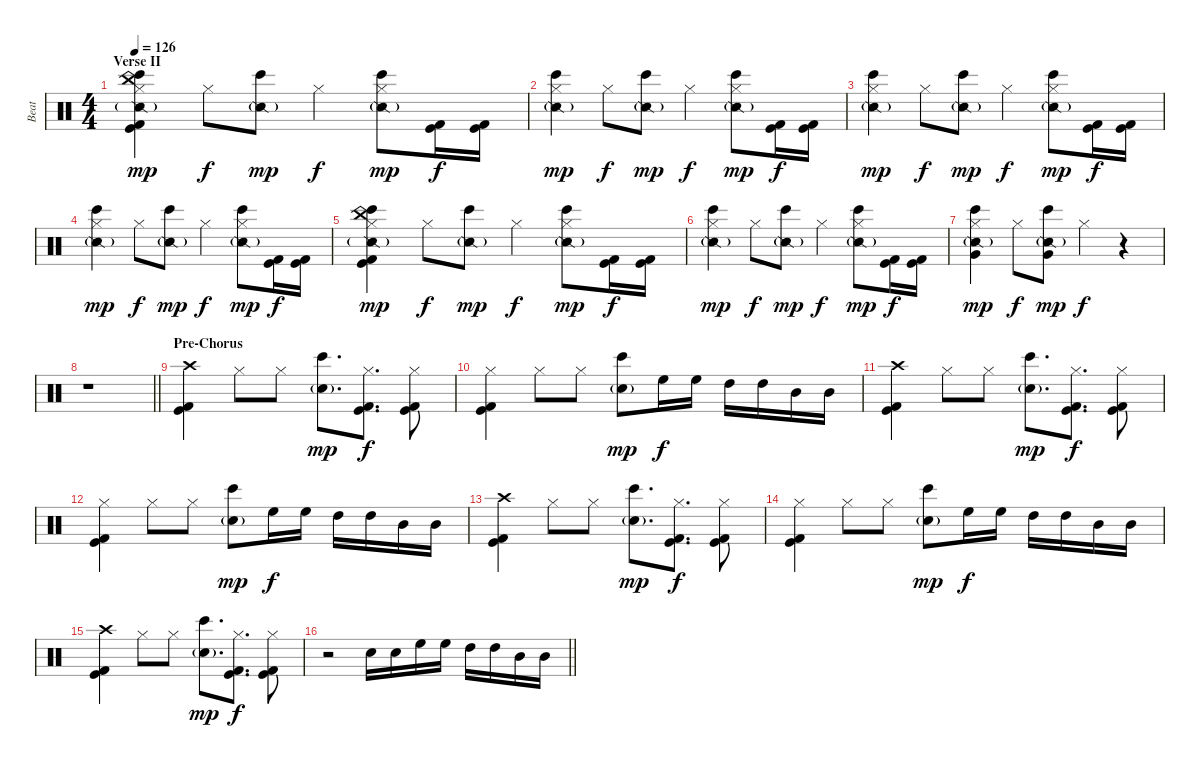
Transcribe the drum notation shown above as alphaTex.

\track ("Beat" "Beat") {instrument percussion}
\staff {score}
\articulation defaults
\ts (4 4)
\section ("" "Verse II")
\tempo 126
\clef neutral
\ks c
("China (hit)" "Hi-Hat (closed)" "Bongo High (hit)" "Snare (side stick) 2"{g} "Kick (hit)" "Kick (hit) 2").4{dy mp} "Hi-Hat (closed)".8{dy f} ("Bongo High (hit)" "Snare (side stick) 2"{g}).8{dy mp} "Hi-Hat (closed)".4{dy f} ("Hi-Hat (closed)" "Bongo High (hit)" "Snare (side stick) 2"{g}).8{dy mp} ("Kick (hit)" "Kick (hit) 2").16{dy f} ("Kick (hit)" "Kick (hit) 2").16 |
("Hi-Hat (closed)" "Bongo High (hit)" "Snare (side stick) 2"{g}).4{dy mp} "Hi-Hat (closed)".8{dy f} ("Bongo High (hit)" "Snare (side stick) 2"{g}).8{dy mp} "Hi-Hat (closed)".4{dy f} ("Hi-Hat (closed)" "Bongo High (hit)" "Snare (side stick) 2"{g}).8{dy mp} ("Kick (hit)" "Kick (hit) 2").16{dy f} ("Kick (hit)" "Kick (hit) 2").16 |
("Hi-Hat (closed)" "Bongo High (hit)" "Snare (side stick) 2"{g}).4{dy mp} "Hi-Hat (closed)".8{dy f} ("Bongo High (hit)" "Snare (side stick) 2"{g}).8{dy mp} "Hi-Hat (closed)".4{dy f} ("Hi-Hat (closed)" "Bongo High (hit)" "Snare (side stick) 2"{g}).8{dy mp} ("Kick (hit)" "Kick (hit) 2").16{dy f} ("Kick (hit)" "Kick (hit) 2").16 |
("Hi-Hat (closed)" "Bongo High (hit)" "Snare (side stick) 2"{g}).4{dy mp} "Hi-Hat (closed)".8{dy f} ("Bongo High (hit)" "Snare (side stick) 2"{g}).8{dy mp} "Hi-Hat (closed)".4{dy f} ("Hi-Hat (closed)" "Bongo High (hit)" "Snare (side stick) 2"{g}).8{dy mp} ("Kick (hit)" "Kick (hit) 2").16{dy f} ("Kick (hit)" "Kick (hit) 2").16 |
("China (hit)" "Hi-Hat (closed)" "Bongo High (hit)" "Snare (side stick) 2"{g} "Kick (hit)" "Kick (hit) 2").4{dy mp} "Hi-Hat (closed)".8{dy f} ("Bongo High (hit)" "Snare (side stick) 2"{g}).8{dy mp} "Hi-Hat (closed)".4{dy f} ("Hi-Hat (closed)" "Bongo High (hit)" "Snare (side stick) 2"{g}).8{dy mp} ("Kick (hit)" "Kick (hit) 2").16{dy f} ("Kick (hit)" "Kick (hit) 2").16 |
("Hi-Hat (closed)" "Bongo High (hit)" "Snare (side stick) 2"{g}).4{dy mp} "Hi-Hat (closed)".8{dy f} ("Bongo High (hit)" "Snare (side stick) 2"{g}).8{dy mp} "Hi-Hat (closed)".4{dy f} ("Hi-Hat (closed)" "Bongo High (hit)" "Snare (side stick) 2"{g}).8{dy mp} ("Kick (hit)" "Kick (hit) 2").16{dy f} ("Kick (hit)" "Kick (hit) 2").16 |
("Hi-Hat (closed)" "Bongo High (hit)" "Snare (side stick) 2"{g} "Very Low Tom (hit)").4{dy mp} "Hi-Hat (closed)".8{dy f} ("Bongo High (hit)" "Snare (side stick) 2"{g} "Very Low Tom (hit)").8{dy mp} "Hi-Hat (closed)".4{dy f} r.4 |
\barLineRight lightlight
r.1 |
\section ("" "Pre-Chorus")
("Crash high (hit)" "Kick (hit)" "Kick (hit) 2").4 "Hi-Hat (closed)".8 "Hi-Hat (closed)".8 ("Bongo High (hit)" "Snare (hit) 2"{g}).8{d dy mp} ("Hi-Hat (closed)" "Kick (hit)" "Kick (hit) 2").8{d dy f} ("Hi-Hat (closed)" "Kick (hit)" "Kick (hit) 2").8 |
("Hi-Hat (closed)" "Kick (hit)" "Kick (hit) 2").4 "Hi-Hat (closed)".8 "Hi-Hat (closed)".8 ("Bongo High (hit)" "Snare (hit) 2"{g}).8{dy mp} "High Floor Tom (hit)".16{dy f} "High Floor Tom (hit)".16 "High Tom (hit)".16 "High Tom (hit)".16 "Mid Tom (hit)".16 "Mid Tom (hit)".16 |
("Crash high (hit)" "Kick (hit)" "Kick (hit) 2").4 "Hi-Hat (closed)".8 "Hi-Hat (closed)".8 ("Bongo High (hit)" "Snare (hit) 2"{g}).8{d dy mp} ("Hi-Hat (closed)" "Kick (hit)" "Kick (hit) 2").8{d dy f} ("Hi-Hat (closed)" "Kick (hit)" "Kick (hit) 2").8 |
("Hi-Hat (closed)" "Kick (hit)" "Kick (hit) 2").4 "Hi-Hat (closed)".8 "Hi-Hat (closed)".8 ("Bongo High (hit)" "Snare (hit) 2"{g}).8{dy mp} "High Floor Tom (hit)".16{dy f} "High Floor Tom (hit)".16 "High Tom (hit)".16 "High Tom (hit)".16 "Mid Tom (hit)".16 "Mid Tom (hit)".16 |
("Crash high (hit)" "Kick (hit)" "Kick (hit) 2").4 "Hi-Hat (closed)".8 "Hi-Hat (closed)".8 ("Bongo High (hit)" "Snare (hit) 2"{g}).8{d dy mp} ("Hi-Hat (closed)" "Kick (hit)" "Kick (hit) 2").8{d dy f} ("Hi-Hat (closed)" "Kick (hit)" "Kick (hit) 2").8 |
("Hi-Hat (closed)" "Kick (hit)" "Kick (hit) 2").4 "Hi-Hat (closed)".8 "Hi-Hat (closed)".8 ("Bongo High (hit)" "Snare (hit) 2"{g}).8{dy mp} "High Floor Tom (hit)".16{dy f} "High Floor Tom (hit)".16 "High Tom (hit)".16 "High Tom (hit)".16 "Mid Tom (hit)".16 "Mid Tom (hit)".16 |
("Crash high (hit)" "Kick (hit)" "Kick (hit) 2").4 "Hi-Hat (closed)".8 "Hi-Hat (closed)".8 ("Bongo High (hit)" "Snare (hit) 2"{g}).8{d dy mp} ("Hi-Hat (closed)" "Kick (hit)" "Kick (hit) 2").8{d dy f} ("Hi-Hat (closed)" "Kick (hit)" "Kick (hit) 2").8 |
\barLineRight lightlight
r.2 "Snare (hit) 2".16 "Snare (hit) 2".16 "High Floor Tom (hit)".16 "High Floor Tom (hit)".16 "High Tom (hit)".16 "High Tom (hit)".16 "Mid Tom (hit)".16 "Mid Tom (hit)".16
